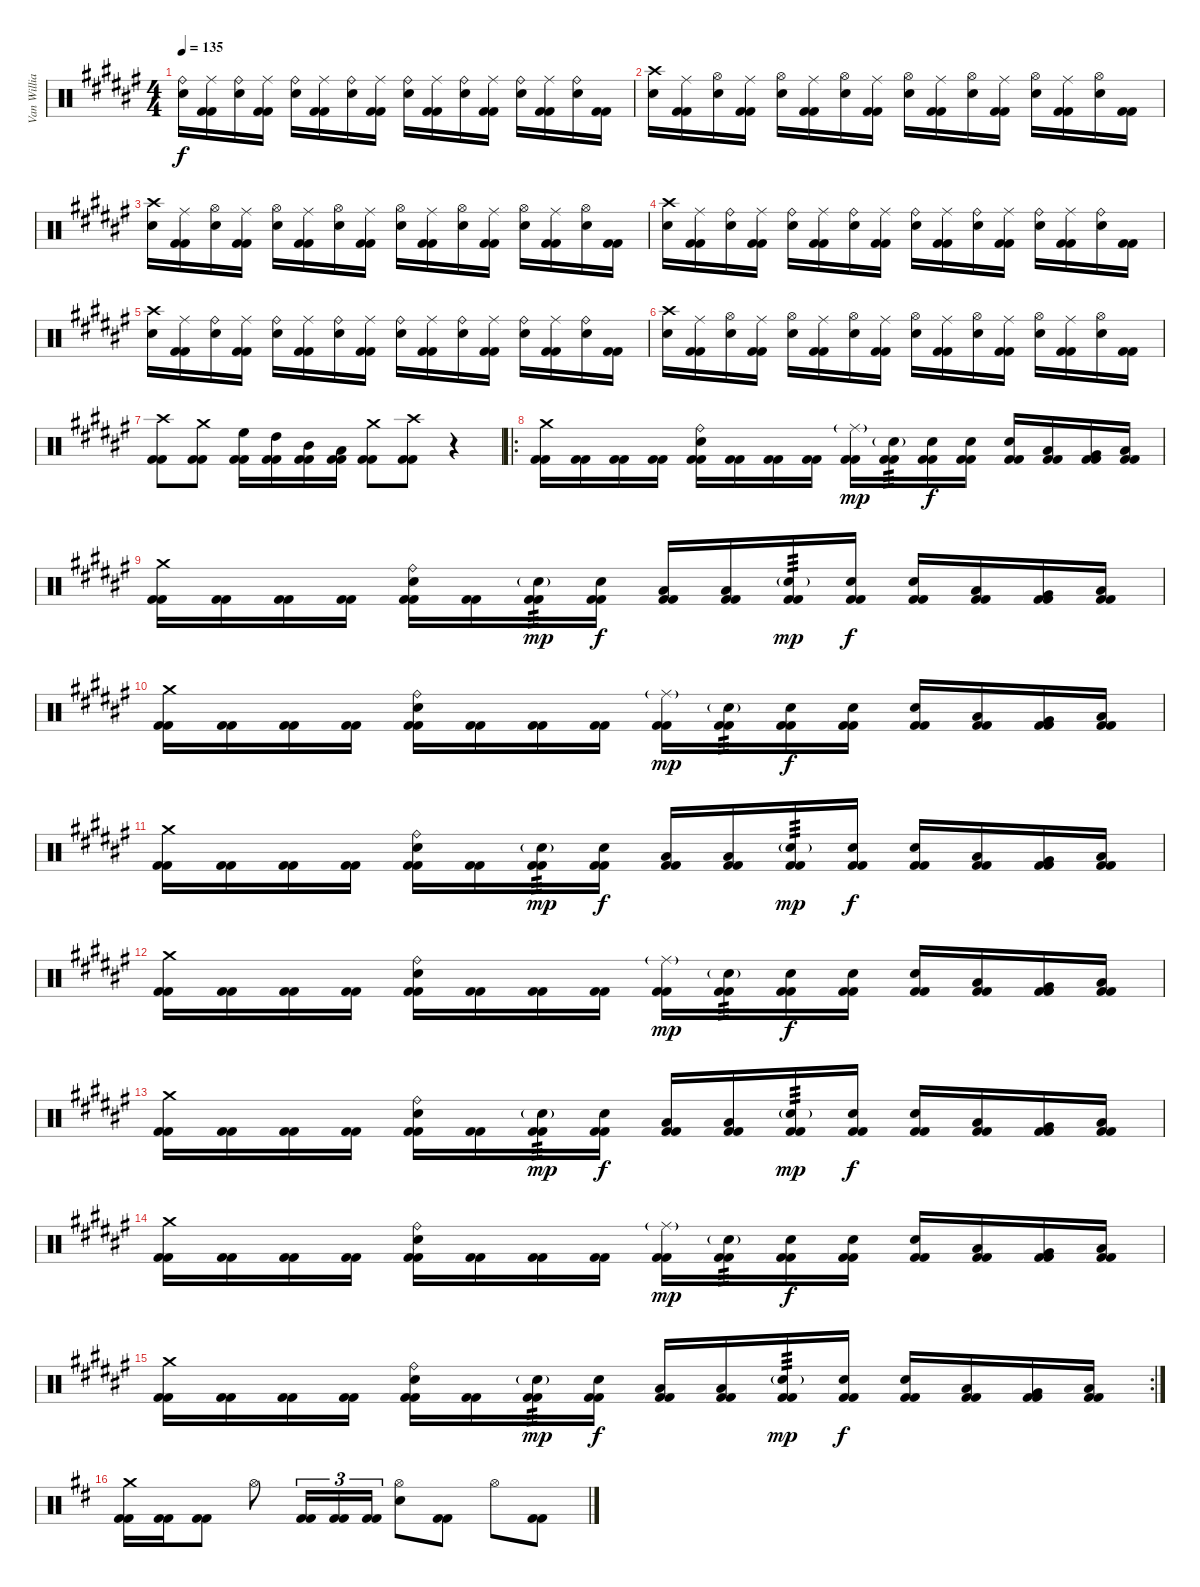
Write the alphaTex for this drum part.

\track ("Van Williams" "Van Willia") {instrument percussion}
\staff {score}
\articulation defaults
\ts (4 4)
\tempo 135
\clef neutral
\ks f#
("Ride (bell)" "Electric Snare (hit)").16{dy f} ("Ride (middle)" "Kick (hit) 2" "Kick (hit) 2").16 ("Ride (bell)" "Electric Snare (hit)").16 ("Ride (middle)" "Kick (hit) 2" "Kick (hit) 2").16 ("Ride (bell)" "Electric Snare (hit)").16 ("Ride (middle)" "Kick (hit) 2" "Kick (hit) 2").16 ("Ride (bell)" "Electric Snare (hit)").16 ("Ride (middle)" "Kick (hit) 2" "Kick (hit) 2").16 ("Ride (bell)" "Electric Snare (hit)").16 ("Ride (middle)" "Kick (hit) 2" "Kick (hit) 2").16 ("Ride (bell)" "Electric Snare (hit)").16 ("Ride (middle)" "Kick (hit) 2" "Kick (hit) 2").16 ("Ride (bell)" "Electric Snare (hit)").16 ("Ride (middle)" "Kick (hit) 2" "Kick (hit) 2").16 ("Ride (bell)" "Electric Snare (hit)").16 ("Kick (hit) 2" "Kick (hit) 2").16 |
("Crash high (hit)" "Electric Snare (hit)").16 ("Ride (middle)" "Kick (hit) 2" "Kick (hit) 2").16 ("Hi-Hat (open)" "Electric Snare (hit)").16 ("Ride (middle)" "Kick (hit) 2" "Kick (hit) 2").16 ("Hi-Hat (open)" "Electric Snare (hit)").16 ("Ride (middle)" "Kick (hit) 2" "Kick (hit) 2").16 ("Hi-Hat (open)" "Electric Snare (hit)").16 ("Ride (middle)" "Kick (hit) 2" "Kick (hit) 2").16 ("Hi-Hat (open)" "Electric Snare (hit)").16 ("Ride (middle)" "Kick (hit) 2" "Kick (hit) 2").16 ("Hi-Hat (open)" "Electric Snare (hit)").16 ("Ride (middle)" "Kick (hit) 2" "Kick (hit) 2").16 ("Hi-Hat (open)" "Electric Snare (hit)").16 ("Ride (middle)" "Kick (hit) 2" "Kick (hit) 2").16 ("Hi-Hat (open)" "Electric Snare (hit)").16 ("Kick (hit) 2" "Kick (hit) 2").16 |
("Crash high (hit)" "Electric Snare (hit)").16 ("Ride (middle)" "Kick (hit) 2" "Kick (hit) 2").16 ("Hi-Hat (open)" "Electric Snare (hit)").16 ("Ride (middle)" "Kick (hit) 2" "Kick (hit) 2").16 ("Hi-Hat (open)" "Electric Snare (hit)").16 ("Ride (middle)" "Kick (hit) 2" "Kick (hit) 2").16 ("Hi-Hat (open)" "Electric Snare (hit)").16 ("Ride (middle)" "Kick (hit) 2" "Kick (hit) 2").16 ("Hi-Hat (open)" "Electric Snare (hit)").16 ("Ride (middle)" "Kick (hit) 2" "Kick (hit) 2").16 ("Hi-Hat (open)" "Electric Snare (hit)").16 ("Ride (middle)" "Kick (hit) 2" "Kick (hit) 2").16 ("Hi-Hat (open)" "Electric Snare (hit)").16 ("Ride (middle)" "Kick (hit) 2" "Kick (hit) 2").16 ("Hi-Hat (open)" "Electric Snare (hit)").16 ("Kick (hit) 2" "Kick (hit) 2").16 |
("Crash high (hit)" "Electric Snare (hit)").16 ("Ride (middle)" "Kick (hit) 2" "Kick (hit) 2").16 ("Ride (bell)" "Electric Snare (hit)").16 ("Ride (middle)" "Kick (hit) 2" "Kick (hit) 2").16 ("Ride (bell)" "Electric Snare (hit)").16 ("Ride (middle)" "Kick (hit) 2" "Kick (hit) 2").16 ("Ride (bell)" "Electric Snare (hit)").16 ("Ride (middle)" "Kick (hit) 2" "Kick (hit) 2").16 ("Ride (bell)" "Electric Snare (hit)").16 ("Ride (middle)" "Kick (hit) 2" "Kick (hit) 2").16 ("Ride (bell)" "Electric Snare (hit)").16 ("Ride (middle)" "Kick (hit) 2" "Kick (hit) 2").16 ("Ride (bell)" "Electric Snare (hit)").16 ("Ride (middle)" "Kick (hit) 2" "Kick (hit) 2").16 ("Ride (bell)" "Electric Snare (hit)").16 ("Kick (hit) 2" "Kick (hit) 2").16 |
("Crash high (hit)" "Electric Snare (hit)").16 ("Ride (middle)" "Kick (hit) 2" "Kick (hit) 2").16 ("Ride (bell)" "Electric Snare (hit)").16 ("Ride (middle)" "Kick (hit) 2" "Kick (hit) 2").16 ("Ride (bell)" "Electric Snare (hit)").16 ("Ride (middle)" "Kick (hit) 2" "Kick (hit) 2").16 ("Ride (bell)" "Electric Snare (hit)").16 ("Ride (middle)" "Kick (hit) 2" "Kick (hit) 2").16 ("Ride (bell)" "Electric Snare (hit)").16 ("Ride (middle)" "Kick (hit) 2" "Kick (hit) 2").16 ("Ride (bell)" "Electric Snare (hit)").16 ("Ride (middle)" "Kick (hit) 2" "Kick (hit) 2").16 ("Ride (bell)" "Electric Snare (hit)").16 ("Ride (middle)" "Kick (hit) 2" "Kick (hit) 2").16 ("Ride (bell)" "Electric Snare (hit)").16 ("Kick (hit) 2" "Kick (hit) 2").16 |
("Crash high (hit)" "Electric Snare (hit)").16 ("Ride (middle)" "Kick (hit) 2" "Kick (hit) 2").16 ("Hi-Hat (open)" "Electric Snare (hit)").16 ("Ride (middle)" "Kick (hit) 2" "Kick (hit) 2").16 ("Hi-Hat (open)" "Electric Snare (hit)").16 ("Ride (middle)" "Kick (hit) 2" "Kick (hit) 2").16 ("Hi-Hat (open)" "Electric Snare (hit)").16 ("Ride (middle)" "Kick (hit) 2" "Kick (hit) 2").16 ("Hi-Hat (open)" "Electric Snare (hit)").16 ("Ride (middle)" "Kick (hit) 2" "Kick (hit) 2").16 ("Hi-Hat (open)" "Electric Snare (hit)").16 ("Ride (middle)" "Kick (hit) 2" "Kick (hit) 2").16 ("Hi-Hat (open)" "Electric Snare (hit)").16 ("Ride (middle)" "Kick (hit) 2" "Kick (hit) 2").16 ("Hi-Hat (open)" "Electric Snare (hit)").16 ("Kick (hit) 2" "Kick (hit) 2").16 |
("Crash high (hit)" "Kick (hit) 2" "Kick (hit) 2").8 ("Crash medium (hit)" "Kick (hit) 2" "Kick (hit) 2").8 ("High Floor Tom (hit)" "Kick (hit) 2" "Kick (hit) 2").16 ("High Tom (hit)" "Kick (hit) 2" "Kick (hit) 2").16 ("Mid Tom (hit)" "Kick (hit) 2" "Kick (hit) 2").16 ("Low Tom (hit)" "Kick (hit) 2" "Kick (hit) 2").16 ("Crash medium (hit)" "Kick (hit) 2" "Kick (hit) 2").8 ("Crash high (hit)" "Kick (hit) 2" "Kick (hit) 2").8 r.4 |
\ro
("Crash medium (hit)" "Kick (hit) 2" "Kick (hit) 2").16 ("Kick (hit) 2" "Kick (hit) 2").16 ("Kick (hit) 2" "Kick (hit) 2").16 ("Kick (hit) 2" "Kick (hit) 2").16 ("Ride (bell)" "Electric Snare (hit)" "Kick (hit) 2" "Kick (hit) 2").16 ("Kick (hit) 2" "Kick (hit) 2").16 ("Kick (hit) 2" "Kick (hit) 2").16 ("Kick (hit) 2" "Kick (hit) 2").16 ("Ride (middle)"{g} "Kick (hit) 2" "Kick (hit) 2").16{dy mp} ("Electric Snare (hit)"{g} "Kick (hit) 2" "Kick (hit) 2").16{tp 3} ("Electric Snare (hit)" "Kick (hit) 2" "Kick (hit) 2").16{dy f} ("Electric Snare (hit)" "Kick (hit) 2" "Kick (hit) 2").16 ("Electric Snare (hit)" "Kick (hit) 2" "Kick (hit) 2").16 ("Low Tom (hit)" "Kick (hit) 2" "Kick (hit) 2").16 ("Very Low Tom (hit)" "Kick (hit) 2" "Kick (hit) 2").16 ("Low Floor Tom (hit)" "Kick (hit) 2" "Kick (hit) 2").16 |
("Crash medium (hit)" "Kick (hit) 2" "Kick (hit) 2").16 ("Kick (hit) 2" "Kick (hit) 2").16 ("Kick (hit) 2" "Kick (hit) 2").16 ("Kick (hit) 2" "Kick (hit) 2").16 ("Ride (bell)" "Electric Snare (hit)" "Kick (hit) 2" "Kick (hit) 2").16 ("Kick (hit) 2" "Kick (hit) 2").16 ("Electric Snare (hit)"{g} "Kick (hit) 2" "Kick (hit) 2").16{tp 3 dy mp} ("Electric Snare (hit)" "Kick (hit) 2" "Kick (hit) 2").16{dy f} ("Low Tom (hit)" "Kick (hit) 2" "Kick (hit) 2").16 ("Low Tom (hit)" "Kick (hit) 2" "Kick (hit) 2").16 ("Electric Snare (hit)"{g} "Kick (hit) 2" "Kick (hit) 2").16{tp 3 dy mp} ("Electric Snare (hit)" "Kick (hit) 2" "Kick (hit) 2").16{dy f} ("Electric Snare (hit)" "Kick (hit) 2" "Kick (hit) 2").16 ("Low Tom (hit)" "Kick (hit) 2" "Kick (hit) 2").16 ("Very Low Tom (hit)" "Kick (hit) 2" "Kick (hit) 2").16 ("Low Floor Tom (hit)" "Kick (hit) 2" "Kick (hit) 2").16 |
("Crash medium (hit)" "Kick (hit) 2" "Kick (hit) 2").16 ("Kick (hit) 2" "Kick (hit) 2").16 ("Kick (hit) 2" "Kick (hit) 2").16 ("Kick (hit) 2" "Kick (hit) 2").16 ("Ride (bell)" "Electric Snare (hit)" "Kick (hit) 2" "Kick (hit) 2").16 ("Kick (hit) 2" "Kick (hit) 2").16 ("Kick (hit) 2" "Kick (hit) 2").16 ("Kick (hit) 2" "Kick (hit) 2").16 ("Ride (middle)"{g} "Kick (hit) 2" "Kick (hit) 2").16{dy mp} ("Electric Snare (hit)"{g} "Kick (hit) 2" "Kick (hit) 2").16{tp 3} ("Electric Snare (hit)" "Kick (hit) 2" "Kick (hit) 2").16{dy f} ("Electric Snare (hit)" "Kick (hit) 2" "Kick (hit) 2").16 ("Electric Snare (hit)" "Kick (hit) 2" "Kick (hit) 2").16 ("Low Tom (hit)" "Kick (hit) 2" "Kick (hit) 2").16 ("Very Low Tom (hit)" "Kick (hit) 2" "Kick (hit) 2").16 ("Low Floor Tom (hit)" "Kick (hit) 2" "Kick (hit) 2").16 |
("Crash medium (hit)" "Kick (hit) 2" "Kick (hit) 2").16 ("Kick (hit) 2" "Kick (hit) 2").16 ("Kick (hit) 2" "Kick (hit) 2").16 ("Kick (hit) 2" "Kick (hit) 2").16 ("Ride (bell)" "Electric Snare (hit)" "Kick (hit) 2" "Kick (hit) 2").16 ("Kick (hit) 2" "Kick (hit) 2").16 ("Electric Snare (hit)"{g} "Kick (hit) 2" "Kick (hit) 2").16{tp 3 dy mp} ("Electric Snare (hit)" "Kick (hit) 2" "Kick (hit) 2").16{dy f} ("Low Tom (hit)" "Kick (hit) 2" "Kick (hit) 2").16 ("Low Tom (hit)" "Kick (hit) 2" "Kick (hit) 2").16 ("Electric Snare (hit)"{g} "Kick (hit) 2" "Kick (hit) 2").16{tp 3 dy mp} ("Electric Snare (hit)" "Kick (hit) 2" "Kick (hit) 2").16{dy f} ("Electric Snare (hit)" "Kick (hit) 2" "Kick (hit) 2").16 ("Low Tom (hit)" "Kick (hit) 2" "Kick (hit) 2").16 ("Very Low Tom (hit)" "Kick (hit) 2" "Kick (hit) 2").16 ("Low Floor Tom (hit)" "Kick (hit) 2" "Kick (hit) 2").16 |
("Crash medium (hit)" "Kick (hit) 2" "Kick (hit) 2").16 ("Kick (hit) 2" "Kick (hit) 2").16 ("Kick (hit) 2" "Kick (hit) 2").16 ("Kick (hit) 2" "Kick (hit) 2").16 ("Ride (bell)" "Electric Snare (hit)" "Kick (hit) 2" "Kick (hit) 2").16 ("Kick (hit) 2" "Kick (hit) 2").16 ("Kick (hit) 2" "Kick (hit) 2").16 ("Kick (hit) 2" "Kick (hit) 2").16 ("Ride (middle)"{g} "Kick (hit) 2" "Kick (hit) 2").16{dy mp} ("Electric Snare (hit)"{g} "Kick (hit) 2" "Kick (hit) 2").16{tp 3} ("Electric Snare (hit)" "Kick (hit) 2" "Kick (hit) 2").16{dy f} ("Electric Snare (hit)" "Kick (hit) 2" "Kick (hit) 2").16 ("Electric Snare (hit)" "Kick (hit) 2" "Kick (hit) 2").16 ("Low Tom (hit)" "Kick (hit) 2" "Kick (hit) 2").16 ("Very Low Tom (hit)" "Kick (hit) 2" "Kick (hit) 2").16 ("Low Floor Tom (hit)" "Kick (hit) 2" "Kick (hit) 2").16 |
("Crash medium (hit)" "Kick (hit) 2" "Kick (hit) 2").16 ("Kick (hit) 2" "Kick (hit) 2").16 ("Kick (hit) 2" "Kick (hit) 2").16 ("Kick (hit) 2" "Kick (hit) 2").16 ("Ride (bell)" "Electric Snare (hit)" "Kick (hit) 2" "Kick (hit) 2").16 ("Kick (hit) 2" "Kick (hit) 2").16 ("Electric Snare (hit)"{g} "Kick (hit) 2" "Kick (hit) 2").16{tp 3 dy mp} ("Electric Snare (hit)" "Kick (hit) 2" "Kick (hit) 2").16{dy f} ("Low Tom (hit)" "Kick (hit) 2" "Kick (hit) 2").16 ("Low Tom (hit)" "Kick (hit) 2" "Kick (hit) 2").16 ("Electric Snare (hit)"{g} "Kick (hit) 2" "Kick (hit) 2").16{tp 3 dy mp} ("Electric Snare (hit)" "Kick (hit) 2" "Kick (hit) 2").16{dy f} ("Electric Snare (hit)" "Kick (hit) 2" "Kick (hit) 2").16 ("Low Tom (hit)" "Kick (hit) 2" "Kick (hit) 2").16 ("Very Low Tom (hit)" "Kick (hit) 2" "Kick (hit) 2").16 ("Low Floor Tom (hit)" "Kick (hit) 2" "Kick (hit) 2").16 |
("Crash medium (hit)" "Kick (hit) 2" "Kick (hit) 2").16 ("Kick (hit) 2" "Kick (hit) 2").16 ("Kick (hit) 2" "Kick (hit) 2").16 ("Kick (hit) 2" "Kick (hit) 2").16 ("Ride (bell)" "Electric Snare (hit)" "Kick (hit) 2" "Kick (hit) 2").16 ("Kick (hit) 2" "Kick (hit) 2").16 ("Kick (hit) 2" "Kick (hit) 2").16 ("Kick (hit) 2" "Kick (hit) 2").16 ("Ride (middle)"{g} "Kick (hit) 2" "Kick (hit) 2").16{dy mp} ("Electric Snare (hit)"{g} "Kick (hit) 2" "Kick (hit) 2").16{tp 3} ("Electric Snare (hit)" "Kick (hit) 2" "Kick (hit) 2").16{dy f} ("Electric Snare (hit)" "Kick (hit) 2" "Kick (hit) 2").16 ("Electric Snare (hit)" "Kick (hit) 2" "Kick (hit) 2").16 ("Low Tom (hit)" "Kick (hit) 2" "Kick (hit) 2").16 ("Very Low Tom (hit)" "Kick (hit) 2" "Kick (hit) 2").16 ("Low Floor Tom (hit)" "Kick (hit) 2" "Kick (hit) 2").16 |
\rc 2
("Crash medium (hit)" "Kick (hit) 2" "Kick (hit) 2").16 ("Kick (hit) 2" "Kick (hit) 2").16 ("Kick (hit) 2" "Kick (hit) 2").16 ("Kick (hit) 2" "Kick (hit) 2").16 ("Ride (bell)" "Electric Snare (hit)" "Kick (hit) 2" "Kick (hit) 2").16 ("Kick (hit) 2" "Kick (hit) 2").16 ("Electric Snare (hit)"{g} "Kick (hit) 2" "Kick (hit) 2").16{tp 3 dy mp} ("Electric Snare (hit)" "Kick (hit) 2" "Kick (hit) 2").16{dy f} ("Low Tom (hit)" "Kick (hit) 2" "Kick (hit) 2").16 ("Low Tom (hit)" "Kick (hit) 2" "Kick (hit) 2").16 ("Electric Snare (hit)"{g} "Kick (hit) 2" "Kick (hit) 2").16{tp 3 dy mp} ("Electric Snare (hit)" "Kick (hit) 2" "Kick (hit) 2").16{dy f} ("Electric Snare (hit)" "Kick (hit) 2" "Kick (hit) 2").16 ("Low Tom (hit)" "Kick (hit) 2" "Kick (hit) 2").16 ("Very Low Tom (hit)" "Kick (hit) 2" "Kick (hit) 2").16 ("Low Floor Tom (hit)" "Kick (hit) 2" "Kick (hit) 2").16 |
\ks d
("Crash medium (hit)" "Kick (hit) 2" "Kick (hit) 2").16 ("Kick (hit) 2" "Kick (hit) 2").16 ("Kick (hit) 2" "Kick (hit) 2").8 "Hi-Hat (open)".8 ("Kick (hit) 2" "Kick (hit) 2").16{tu (3 2)} ("Kick (hit) 2" "Kick (hit) 2").16{tu (3 2)} ("Kick (hit) 2" "Kick (hit) 2").16{tu (3 2)} ("Hi-Hat (open)" "Electric Snare (hit)").8 ("Kick (hit) 2" "Kick (hit) 2").8 "Hi-Hat (open)".8 ("Kick (hit) 2" "Kick (hit) 2").8
